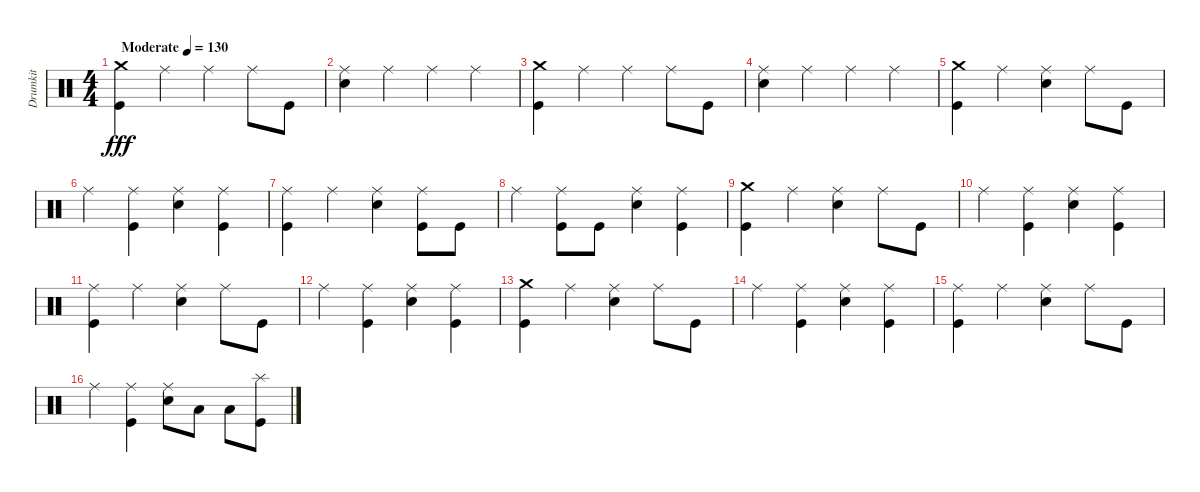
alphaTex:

\track ("Drumkit" "Drumkit") {instrument percussion}
\staff {score}
\articulation defaults
\ts (4 4)
\tempo (130 "Moderate")
\clef neutral
\ks c
("Kick (hit)" "Crash medium (hit)").4{dy fff} "Ride (middle)".4 "Ride (middle)".4 "Ride (middle)".8 "Kick (hit)".8 |
("Snare (hit) 2" "Ride (middle)").4 "Ride (middle)".4 "Ride (middle)".4 "Ride (middle)".4 |
("Kick (hit)" "Crash medium (hit)").4 "Ride (middle)".4 "Ride (middle)".4 "Ride (middle)".8 "Kick (hit)".8 |
("Snare (hit) 2" "Ride (middle)").4 "Ride (middle)".4 "Ride (middle)".4 "Ride (middle)".4 |
("Kick (hit)" "Crash medium (hit)").4 "Ride (middle)".4 ("Snare (hit) 2" "Ride (middle)").4 "Ride (middle)".8 "Kick (hit)".8 |
"Ride (middle)".4 ("Kick (hit)" "Ride (middle)").4 ("Snare (hit) 2" "Ride (middle)").4 ("Kick (hit)" "Ride (middle)").4 |
("Kick (hit)" "Ride (middle)").4 "Ride (middle)".4 ("Snare (hit) 2" "Ride (middle)").4 ("Kick (hit)" "Ride (middle)").8 "Kick (hit)".8 |
"Ride (middle)".4 ("Kick (hit)" "Ride (middle)").8 "Kick (hit)".8 ("Snare (hit) 2" "Ride (middle)").4 ("Kick (hit)" "Ride (middle)").4 |
("Kick (hit)" "Crash medium (hit)").4 "Ride (middle)".4 ("Snare (hit) 2" "Ride (middle)").4 "Ride (middle)".8 "Kick (hit)".8 |
"Ride (middle)".4 ("Kick (hit)" "Ride (middle)").4 ("Snare (hit) 2" "Ride (middle)").4 ("Kick (hit)" "Ride (middle)").4 |
("Kick (hit)" "Ride (middle)").4 "Ride (middle)".4 ("Snare (hit) 2" "Ride (middle)").4 "Ride (middle)".8 "Kick (hit)".8 |
"Ride (middle)".4 ("Kick (hit)" "Ride (middle)").4 ("Snare (hit) 2" "Ride (middle)").4 ("Kick (hit)" "Ride (middle)").4 |
("Kick (hit)" "Crash medium (hit)").4 "Ride (middle)".4 ("Snare (hit) 2" "Ride (middle)").4 "Ride (middle)".8 "Kick (hit)".8 |
"Ride (middle)".4 ("Kick (hit)" "Ride (middle)").4 ("Snare (hit) 2" "Ride (middle)").4 ("Kick (hit)" "Ride (middle)").4 |
("Kick (hit)" "Ride (middle)").4 "Ride (middle)".4 ("Snare (hit) 2" "Ride (middle)").4 "Ride (middle)".8 "Kick (hit)".8 |
"Ride (middle)".4 ("Kick (hit)" "Ride (middle)").4 ("Ride (middle)" "Snare (hit) 2").8 "Low Tom (hit)".8 "Low Tom (hit)".8 ("Kick (hit)" "Splash (hit)").8
